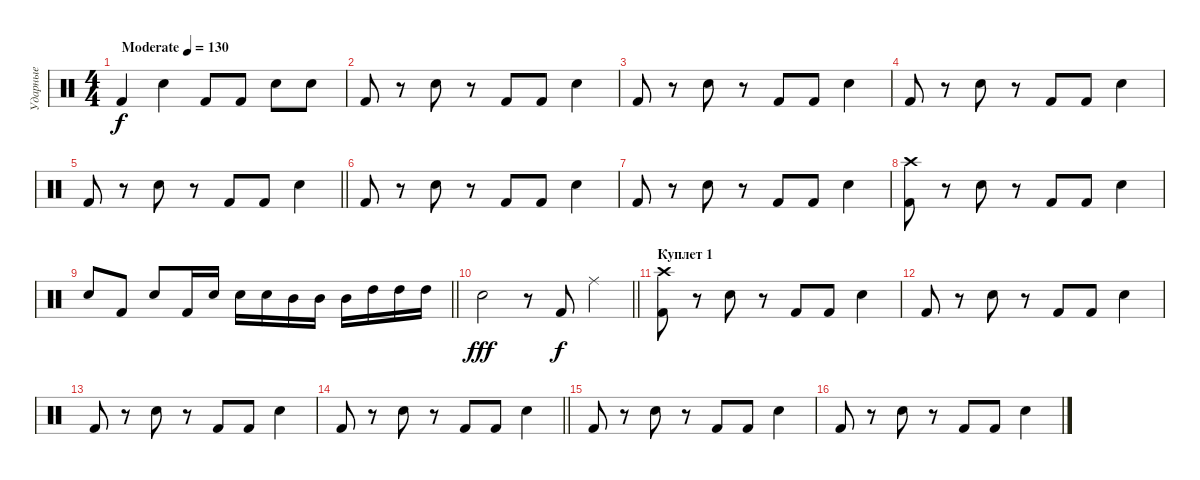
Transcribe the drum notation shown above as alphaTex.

\track ("Ударные" "Ударные") {instrument percussion}
\staff {score}
\articulation defaults
\ts (4 4)
\tempo (130 "Moderate")
\clef neutral
\ks c "Kick (hit) 2".4{dy f} "Electric Snare (hit)".4 "Kick (hit) 2".8 "Kick (hit) 2".8 "Electric Snare (hit)".8 "Electric Snare (hit)".8
|
"Kick (hit) 2".8 r.8 "Snare (hit) 2".8 r.8 "Kick (hit) 2".8 "Kick (hit) 2".8 "Snare (hit) 2".4 |
"Kick (hit) 2".8 r.8 "Snare (hit) 2".8 r.8 "Kick (hit) 2".8 "Kick (hit) 2".8 "Snare (hit) 2".4 |
"Kick (hit) 2".8 r.8 "Snare (hit) 2".8 r.8 "Kick (hit) 2".8 "Kick (hit) 2".8 "Snare (hit) 2".4 |
\barLineRight lightlight "Kick (hit) 2".8
r.8 "Snare (hit) 2".8 r.8 "Kick (hit) 2".8 "Kick (hit) 2".8 "Snare (hit) 2".4 |
"Kick (hit) 2".8 r.8 "Snare (hit) 2".8 r.8 "Kick (hit) 2".8 "Kick (hit) 2".8 "Snare (hit) 2".4 |
"Kick (hit) 2".8 r.8 "Snare (hit) 2".8 r.8 "Kick (hit) 2".8 "Kick (hit) 2".8 "Snare (hit) 2".4 |
("Crash high (hit)" "Kick (hit) 2").8 r.8 "Snare (hit) 2".8 r.8 "Kick (hit) 2".8 "Kick (hit) 2".8 "Snare (hit) 2".4 |
\barLineRight lightlight "Snare (hit) 2".8 "Kick (hit) 2".8 "Snare (hit) 2".8 "Kick (hit) 2".16 "Snare (hit) 2".16 "Snare (hit) 2".16 "Snare (hit) 2".16 "Mid Tom (hit)".16 "Mid Tom (hit)".16 "Mid Tom (hit)".16 "High Tom (hit)".16 "High Tom (hit)".16 "High Tom (hit)".16
|
\barLineRight lightlight "Snare (hit) 2".2{dy fff}
r.8 "Kick (hit) 2".8{dy f} "Ride (middle)".4 |
\section ("" "Куплет 1")
("Crash high (hit)" "Kick (hit) 2").8 r.8 "Snare (hit) 2".8 r.8 "Kick (hit) 2".8 "Kick (hit) 2".8 "Snare (hit) 2".4 |
"Kick (hit) 2".8 r.8 "Snare (hit) 2".8 r.8 "Kick (hit) 2".8 "Kick (hit) 2".8 "Snare (hit) 2".4 |
"Kick (hit) 2".8 r.8 "Snare (hit) 2".8 r.8 "Kick (hit) 2".8 "Kick (hit) 2".8 "Snare (hit) 2".4 |
\barLineRight lightlight "Kick (hit) 2".8
r.8 "Snare (hit) 2".8 r.8 "Kick (hit) 2".8 "Kick (hit) 2".8 "Snare (hit) 2".4 |
"Kick (hit) 2".8 r.8 "Snare (hit) 2".8 r.8 "Kick (hit) 2".8 "Kick (hit) 2".8 "Snare (hit) 2".4 |
"Kick (hit) 2".8 r.8 "Snare (hit) 2".8 r.8 "Kick (hit) 2".8 "Kick (hit) 2".8 "Snare (hit) 2".4
